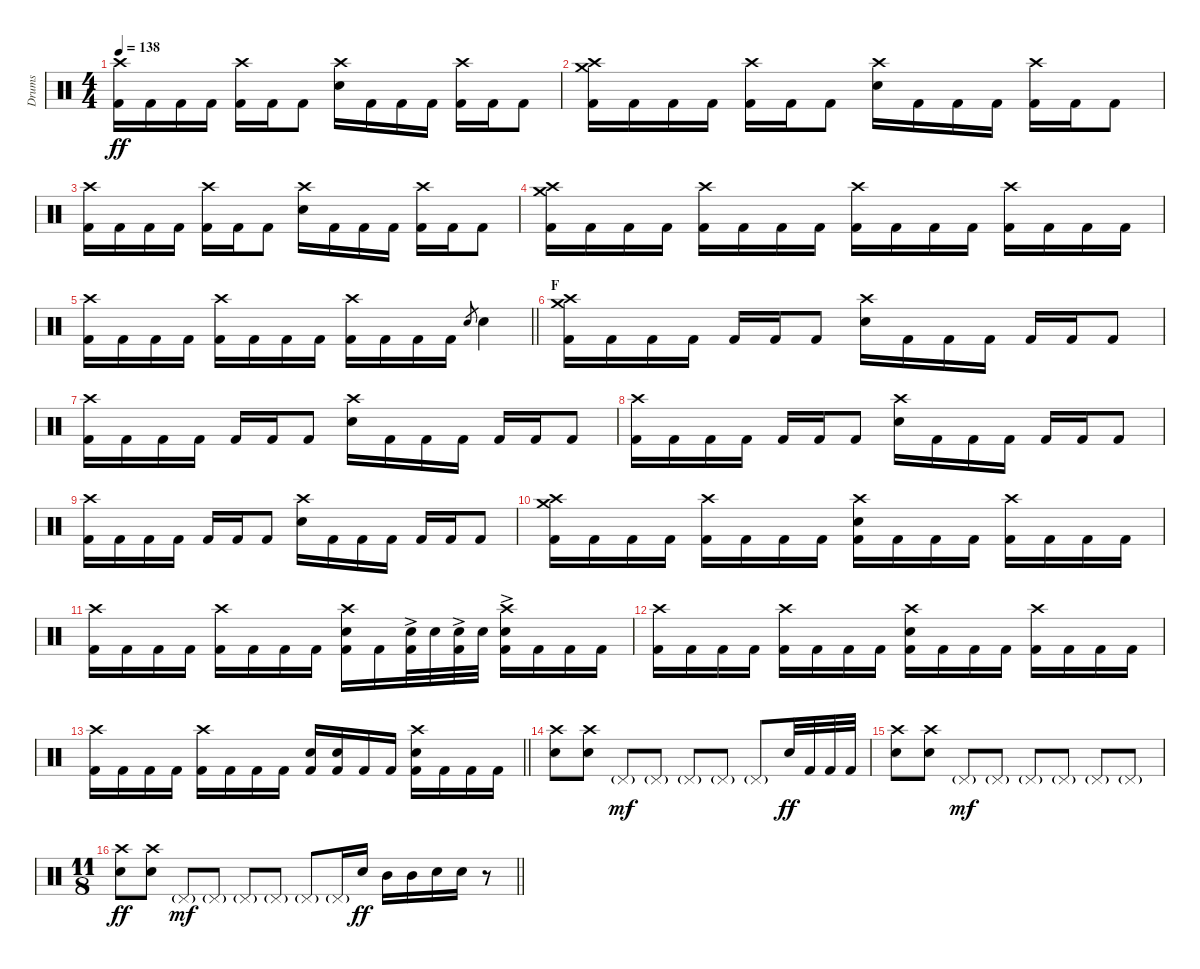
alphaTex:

\track ("Drums" "Drums") {instrument percussion}
\staff {score}
\articulation defaults
\ts (4 4)
\tempo 138
\clef neutral
\ks c
("Crash high (hit)" "Kick (hit) 2").16{dy ff} "Kick (hit) 2".16 "Kick (hit) 2".16 "Kick (hit) 2".16 ("Crash high (hit)" "Kick (hit) 2").16 "Kick (hit) 2".16 "Kick (hit) 2".8 ("Crash high (hit)" "Electric Snare (hit)").16 "Kick (hit) 2".16 "Kick (hit) 2".16 "Kick (hit) 2".16 ("Crash high (hit)" "Kick (hit) 2").16 "Kick (hit) 2".16 "Kick (hit) 2".8 |
("Crash medium (hit)" "Crash high (hit)" "Kick (hit) 2").16 "Kick (hit) 2".16 "Kick (hit) 2".16 "Kick (hit) 2".16 ("Crash high (hit)" "Kick (hit) 2").16 "Kick (hit) 2".16 "Kick (hit) 2".8 ("Crash high (hit)" "Electric Snare (hit)").16 "Kick (hit) 2".16 "Kick (hit) 2".16 "Kick (hit) 2".16 ("Crash high (hit)" "Kick (hit) 2").16 "Kick (hit) 2".16 "Kick (hit) 2".8 |
("Crash high (hit)" "Kick (hit) 2").16 "Kick (hit) 2".16 "Kick (hit) 2".16 "Kick (hit) 2".16 ("Crash high (hit)" "Kick (hit) 2").16 "Kick (hit) 2".16 "Kick (hit) 2".8 ("Crash high (hit)" "Electric Snare (hit)").16 "Kick (hit) 2".16 "Kick (hit) 2".16 "Kick (hit) 2".16 ("Crash high (hit)" "Kick (hit) 2").16 "Kick (hit) 2".16 "Kick (hit) 2".8 |
("Crash medium (hit)" "Crash high (hit)" "Kick (hit) 2").16 "Kick (hit) 2".16 "Kick (hit) 2".16 "Kick (hit) 2".16 ("Crash high (hit)" "Kick (hit) 2").16 "Kick (hit) 2".16 "Kick (hit) 2".16 "Kick (hit) 2".16 ("Crash high (hit)" "Kick (hit) 2").16 "Kick (hit) 2".16 "Kick (hit) 2".16 "Kick (hit) 2".16 ("Crash high (hit)" "Kick (hit) 2").16 "Kick (hit) 2".16 "Kick (hit) 2".16 "Kick (hit) 2".16 |
\barLineRight lightlight
("Crash high (hit)" "Kick (hit) 2").16 "Kick (hit) 2".16 "Kick (hit) 2".16 "Kick (hit) 2".16 ("Crash high (hit)" "Kick (hit) 2").16 "Kick (hit) 2".16 "Kick (hit) 2".16 "Kick (hit) 2".16 ("Crash high (hit)" "Kick (hit) 2").16 "Kick (hit) 2".16 "Kick (hit) 2".16 "Kick (hit) 2".16 "Electric Snare (hit)".8{gr} "Electric Snare (hit)".4 |
\section ("" "F")
("Crash medium (hit)" "Crash high (hit)" "Kick (hit) 2").16 "Kick (hit) 2".16 "Kick (hit) 2".16 "Kick (hit) 2".16 "Kick (hit) 2".16 "Kick (hit) 2".16 "Kick (hit) 2".8 ("Crash high (hit)" "Electric Snare (hit)").16 "Kick (hit) 2".16 "Kick (hit) 2".16 "Kick (hit) 2".16 "Kick (hit) 2".16 "Kick (hit) 2".16 "Kick (hit) 2".8 |
("Crash high (hit)" "Kick (hit) 2").16 "Kick (hit) 2".16 "Kick (hit) 2".16 "Kick (hit) 2".16 "Kick (hit) 2".16 "Kick (hit) 2".16 "Kick (hit) 2".8 ("Crash high (hit)" "Electric Snare (hit)").16 "Kick (hit) 2".16 "Kick (hit) 2".16 "Kick (hit) 2".16 "Kick (hit) 2".16 "Kick (hit) 2".16 "Kick (hit) 2".8 |
("Crash high (hit)" "Kick (hit) 2").16 "Kick (hit) 2".16 "Kick (hit) 2".16 "Kick (hit) 2".16 "Kick (hit) 2".16 "Kick (hit) 2".16 "Kick (hit) 2".8 ("Crash high (hit)" "Electric Snare (hit)").16 "Kick (hit) 2".16 "Kick (hit) 2".16 "Kick (hit) 2".16 "Kick (hit) 2".16 "Kick (hit) 2".16 "Kick (hit) 2".8 |
("Crash high (hit)" "Kick (hit) 2").16 "Kick (hit) 2".16 "Kick (hit) 2".16 "Kick (hit) 2".16 "Kick (hit) 2".16 "Kick (hit) 2".16 "Kick (hit) 2".8 ("Crash high (hit)" "Electric Snare (hit)").16 "Kick (hit) 2".16 "Kick (hit) 2".16 "Kick (hit) 2".16 "Kick (hit) 2".16 "Kick (hit) 2".16 "Kick (hit) 2".8 |
("Crash medium (hit)" "Crash high (hit)" "Kick (hit) 2").16 "Kick (hit) 2".16 "Kick (hit) 2".16 "Kick (hit) 2".16 ("Crash high (hit)" "Kick (hit) 2").16 "Kick (hit) 2".16 "Kick (hit) 2".16 "Kick (hit) 2".16 ("Crash high (hit)" "Electric Snare (hit)" "Kick (hit) 2").16 "Kick (hit) 2".16 "Kick (hit) 2".16 "Kick (hit) 2".16 ("Crash high (hit)" "Kick (hit) 2").16 "Kick (hit) 2".16 "Kick (hit) 2".16 "Kick (hit) 2".16 |
("Crash high (hit)" "Kick (hit) 2").16 "Kick (hit) 2".16 "Kick (hit) 2".16 "Kick (hit) 2".16 ("Crash high (hit)" "Kick (hit) 2").16 "Kick (hit) 2".16 "Kick (hit) 2".16 "Kick (hit) 2".16 ("Crash high (hit)" "Electric Snare (hit)" "Kick (hit) 2").16 "Kick (hit) 2".16 ("Electric Snare (hit)"{ac} "Kick (hit) 2").32 "Electric Snare (hit)".32 ("Electric Snare (hit)"{ac} "Kick (hit) 2").32 "Electric Snare (hit)".32 ("Crash high (hit)" "Electric Snare (hit)"{ac} "Kick (hit) 2").16 "Kick (hit) 2".16 "Kick (hit) 2".16 "Kick (hit) 2".16 |
("Crash high (hit)" "Kick (hit) 2").16 "Kick (hit) 2".16 "Kick (hit) 2".16 "Kick (hit) 2".16 ("Crash high (hit)" "Kick (hit) 2").16 "Kick (hit) 2".16 "Kick (hit) 2".16 "Kick (hit) 2".16 ("Crash high (hit)" "Electric Snare (hit)" "Kick (hit) 2").16 "Kick (hit) 2".16 "Kick (hit) 2".16 "Kick (hit) 2".16 ("Crash high (hit)" "Kick (hit) 2").16 "Kick (hit) 2".16 "Kick (hit) 2".16 "Kick (hit) 2".16 |
\barLineRight lightlight
("Crash high (hit)" "Kick (hit) 2").16 "Kick (hit) 2".16 "Kick (hit) 2".16 "Kick (hit) 2".16 ("Crash high (hit)" "Kick (hit) 2").16 "Kick (hit) 2".16 "Kick (hit) 2".16 "Kick (hit) 2".16 ("Electric Snare (hit)" "Kick (hit) 2").16 ("Electric Snare (hit)" "Kick (hit) 2").16 "Kick (hit) 2".16 "Kick (hit) 2".16 ("Crash high (hit)" "Electric Snare (hit)" "Kick (hit) 2").16 "Kick (hit) 2".16 "Kick (hit) 2".16 "Kick (hit) 2".16 |
\section ("" "")
("Crash high (hit)" "Electric Snare (hit)").8 ("Crash high (hit)" "Electric Snare (hit)").8 "Pedal Hi-Hat (hit)"{g}.8{dy mf} "Pedal Hi-Hat (hit)"{g}.8 "Pedal Hi-Hat (hit)"{g}.8 "Pedal Hi-Hat (hit)"{g}.8 "Pedal Hi-Hat (hit)"{g}.8 "Electric Snare (hit)".32{dy ff} "Kick (hit) 2".32 "Kick (hit) 2".32 "Kick (hit) 2".32 |
("Crash high (hit)" "Electric Snare (hit)").8 ("Crash high (hit)" "Electric Snare (hit)").8 "Pedal Hi-Hat (hit)"{g}.8{dy mf} "Pedal Hi-Hat (hit)"{g}.8 "Pedal Hi-Hat (hit)"{g}.8 "Pedal Hi-Hat (hit)"{g}.8 "Pedal Hi-Hat (hit)"{g}.8 "Pedal Hi-Hat (hit)"{g}.8 |
\ts (11 8)
\barLineRight lightlight
("Crash high (hit)" "Electric Snare (hit)").8{dy ff} ("Crash high (hit)" "Electric Snare (hit)").8 "Pedal Hi-Hat (hit)"{g}.8{dy mf} "Pedal Hi-Hat (hit)"{g}.8 "Pedal Hi-Hat (hit)"{g}.8 "Pedal Hi-Hat (hit)"{g}.8 "Pedal Hi-Hat (hit)"{g}.8 "Pedal Hi-Hat (hit)"{g}.16 "Electric Snare (hit)".16{dy ff} "Mid Tom (hit)".16 "Mid Tom (hit)".16 "Electric Snare (hit)".16 "Electric Snare (hit)".16 r.8
